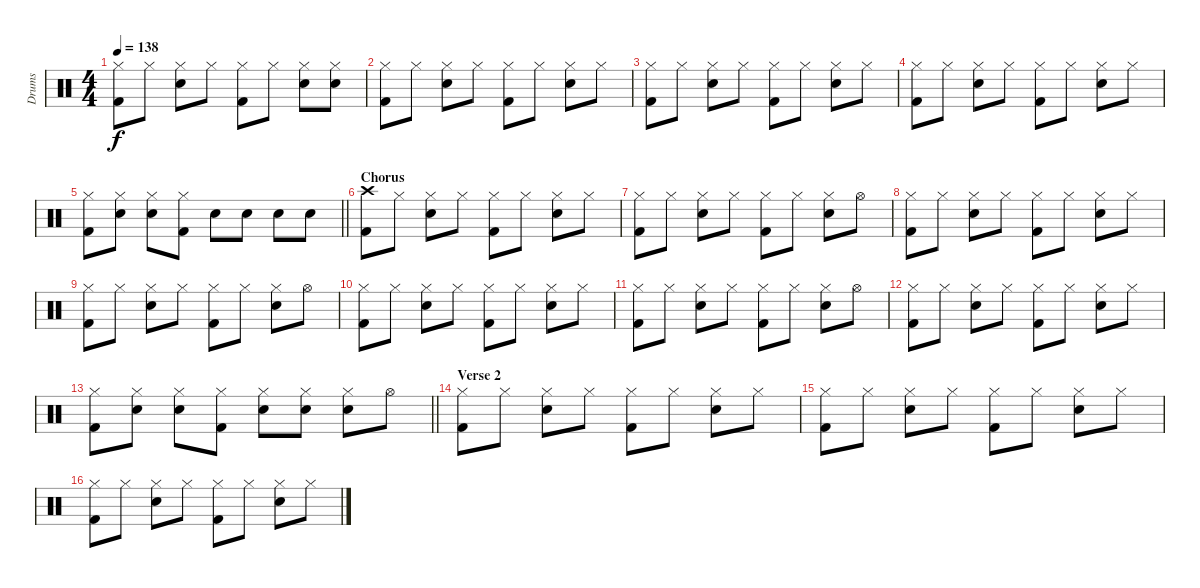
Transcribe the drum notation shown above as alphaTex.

\track ("Drums" "Drums") {instrument percussion}
\staff {score}
\articulation defaults
\ts (4 4)
\tempo 138
\clef neutral
\ks c
("Hi-Hat (closed)" "Kick (hit) 2").8{dy f} "Hi-Hat (closed)".8 ("Hi-Hat (closed)" "Snare (hit) 2").8 "Hi-Hat (closed)".8 ("Hi-Hat (closed)" "Kick (hit) 2").8 "Hi-Hat (closed)".8 ("Hi-Hat (closed)" "Snare (hit) 2").8 ("Hi-Hat (closed)" "Snare (hit) 2").8 |
("Hi-Hat (closed)" "Kick (hit) 2").8 "Hi-Hat (closed)".8 ("Hi-Hat (closed)" "Snare (hit) 2").8 "Hi-Hat (closed)".8 ("Hi-Hat (closed)" "Kick (hit) 2").8 "Hi-Hat (closed)".8 ("Hi-Hat (closed)" "Snare (hit) 2").8 "Hi-Hat (closed)".8 |
("Hi-Hat (closed)" "Kick (hit) 2").8 "Hi-Hat (closed)".8 ("Hi-Hat (closed)" "Snare (hit) 2").8 "Hi-Hat (closed)".8 ("Hi-Hat (closed)" "Kick (hit) 2").8 "Hi-Hat (closed)".8 ("Hi-Hat (closed)" "Snare (hit) 2").8 "Hi-Hat (closed)".8 |
("Hi-Hat (closed)" "Kick (hit) 2").8 "Hi-Hat (closed)".8 ("Hi-Hat (closed)" "Snare (hit) 2").8 "Hi-Hat (closed)".8 ("Hi-Hat (closed)" "Kick (hit) 2").8 "Hi-Hat (closed)".8 ("Hi-Hat (closed)" "Snare (hit) 2").8 "Hi-Hat (closed)".8 |
\barLineRight lightlight
("Hi-Hat (closed)" "Kick (hit) 2").8 ("Hi-Hat (closed)" "Snare (hit) 2").8 ("Hi-Hat (closed)" "Snare (hit) 2").8 ("Hi-Hat (closed)" "Kick (hit) 2").8 "Snare (hit) 2".8 "Snare (hit) 2".8 "Snare (hit) 2".8 "Snare (hit) 2".8 |
\section ("" "Chorus")
("Crash high (hit)" "Kick (hit) 2").8 "Hi-Hat (closed)".8 ("Hi-Hat (closed)" "Snare (hit) 2").8 "Hi-Hat (closed)".8 ("Hi-Hat (closed)" "Kick (hit) 2").8 "Hi-Hat (closed)".8 ("Hi-Hat (closed)" "Snare (hit) 2").8 "Hi-Hat (closed)".8 |
("Hi-Hat (closed)" "Kick (hit) 2").8 "Hi-Hat (closed)".8 ("Hi-Hat (closed)" "Snare (hit) 2").8 "Hi-Hat (closed)".8 ("Hi-Hat (closed)" "Kick (hit) 2").8 "Hi-Hat (closed)".8 ("Hi-Hat (closed)" "Snare (hit) 2").8 "Hi-Hat (open)".8 |
("Hi-Hat (closed)" "Kick (hit) 2").8 "Hi-Hat (closed)".8 ("Hi-Hat (closed)" "Snare (hit) 2").8 "Hi-Hat (closed)".8 ("Hi-Hat (closed)" "Kick (hit) 2").8 "Hi-Hat (closed)".8 ("Hi-Hat (closed)" "Snare (hit) 2").8 "Hi-Hat (closed)".8 |
("Hi-Hat (closed)" "Kick (hit) 2").8 "Hi-Hat (closed)".8 ("Hi-Hat (closed)" "Snare (hit) 2").8 "Hi-Hat (closed)".8 ("Hi-Hat (closed)" "Kick (hit) 2").8 "Hi-Hat (closed)".8 ("Hi-Hat (closed)" "Snare (hit) 2").8 "Hi-Hat (open)".8 |
("Hi-Hat (closed)" "Kick (hit) 2").8 "Hi-Hat (closed)".8 ("Hi-Hat (closed)" "Snare (hit) 2").8 "Hi-Hat (closed)".8 ("Hi-Hat (closed)" "Kick (hit) 2").8 "Hi-Hat (closed)".8 ("Hi-Hat (closed)" "Snare (hit) 2").8 "Hi-Hat (closed)".8 |
("Hi-Hat (closed)" "Kick (hit) 2").8 "Hi-Hat (closed)".8 ("Hi-Hat (closed)" "Snare (hit) 2").8 "Hi-Hat (closed)".8 ("Hi-Hat (closed)" "Kick (hit) 2").8 "Hi-Hat (closed)".8 ("Hi-Hat (closed)" "Snare (hit) 2").8 "Hi-Hat (open)".8 |
("Hi-Hat (closed)" "Kick (hit) 2").8 "Hi-Hat (closed)".8 ("Hi-Hat (closed)" "Snare (hit) 2").8 "Hi-Hat (closed)".8 ("Hi-Hat (closed)" "Kick (hit) 2").8 "Hi-Hat (closed)".8 ("Hi-Hat (closed)" "Snare (hit) 2").8 "Hi-Hat (closed)".8 |
\barLineRight lightlight
("Hi-Hat (closed)" "Kick (hit) 2").8 ("Hi-Hat (closed)" "Snare (hit) 2").8 ("Hi-Hat (closed)" "Snare (hit) 2").8 ("Hi-Hat (closed)" "Kick (hit) 2").8 ("Hi-Hat (closed)" "Snare (hit) 2").8 ("Hi-Hat (closed)" "Snare (hit) 2").8 ("Hi-Hat (closed)" "Snare (hit) 2").8 "Hi-Hat (open)".8 |
\section ("" "Verse 2")
("Hi-Hat (closed)" "Kick (hit) 2").8 "Hi-Hat (closed)".8 ("Hi-Hat (closed)" "Snare (hit) 2").8 "Hi-Hat (closed)".8 ("Hi-Hat (closed)" "Kick (hit) 2").8 "Hi-Hat (closed)".8 ("Hi-Hat (closed)" "Snare (hit) 2").8 "Hi-Hat (closed)".8 |
("Hi-Hat (closed)" "Kick (hit) 2").8 "Hi-Hat (closed)".8 ("Hi-Hat (closed)" "Snare (hit) 2").8 "Hi-Hat (closed)".8 ("Hi-Hat (closed)" "Kick (hit) 2").8 "Hi-Hat (closed)".8 ("Hi-Hat (closed)" "Snare (hit) 2").8 "Hi-Hat (closed)".8 |
("Hi-Hat (closed)" "Kick (hit) 2").8 "Hi-Hat (closed)".8 ("Hi-Hat (closed)" "Snare (hit) 2").8 "Hi-Hat (closed)".8 ("Hi-Hat (closed)" "Kick (hit) 2").8 "Hi-Hat (closed)".8 ("Hi-Hat (closed)" "Snare (hit) 2").8 "Hi-Hat (closed)".8
